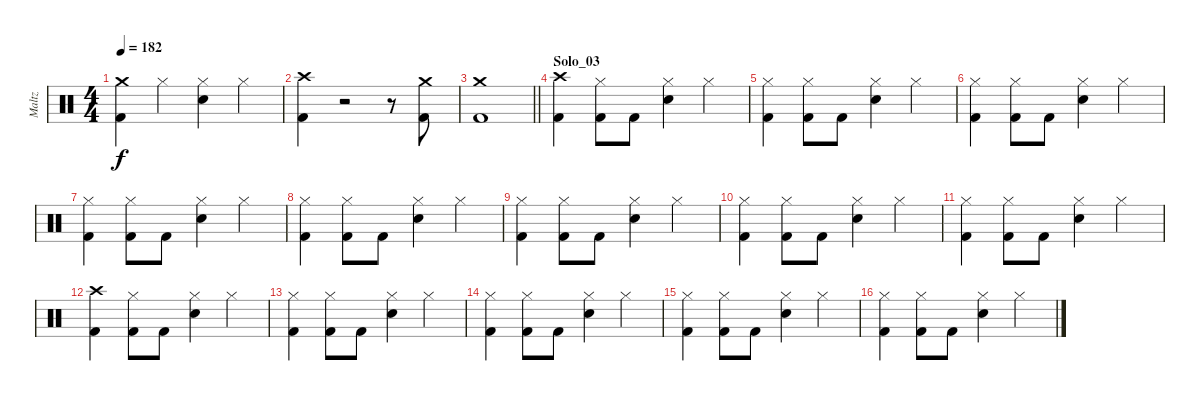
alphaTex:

\track ("Maltz" "Maltz") {instrument percussion}
\staff {score}
\articulation defaults
\ts (4 4)
\tempo 182
\clef neutral
\ks c
("Crash medium (hit)" "Kick (hit) 2").4{dy f} "Hi-Hat (closed)".4 ("Hi-Hat (closed)" "Electric Snare (hit)").4 "Hi-Hat (closed)".4 |
("Crash high (hit)" "Kick (hit) 2").4 r.2 r.8 ("Crash medium (hit)" "Kick (hit) 2").8 |
\barLineRight lightlight
("Crash medium (hit)" "Kick (hit) 2").1 |
\section ("" "Solo_03")
("Crash high (hit)" "Kick (hit) 2").4 ("Hi-Hat (closed)" "Kick (hit) 2").8 "Kick (hit) 2".8 ("Hi-Hat (closed)" "Electric Snare (hit)").4 "Hi-Hat (closed)".4 |
("Hi-Hat (closed)" "Kick (hit) 2").4 ("Hi-Hat (closed)" "Kick (hit) 2").8 "Kick (hit) 2".8 ("Hi-Hat (closed)" "Electric Snare (hit)").4 "Hi-Hat (closed)".4 |
("Hi-Hat (closed)" "Kick (hit) 2").4 ("Hi-Hat (closed)" "Kick (hit) 2").8 "Kick (hit) 2".8 ("Hi-Hat (closed)" "Electric Snare (hit)").4 "Hi-Hat (closed)".4 |
("Hi-Hat (closed)" "Kick (hit) 2").4 ("Hi-Hat (closed)" "Kick (hit) 2").8 "Kick (hit) 2".8 ("Hi-Hat (closed)" "Electric Snare (hit)").4 "Hi-Hat (closed)".4 |
("Hi-Hat (closed)" "Kick (hit) 2").4 ("Hi-Hat (closed)" "Kick (hit) 2").8 "Kick (hit) 2".8 ("Hi-Hat (closed)" "Electric Snare (hit)").4 "Hi-Hat (closed)".4 |
("Hi-Hat (closed)" "Kick (hit) 2").4 ("Hi-Hat (closed)" "Kick (hit) 2").8 "Kick (hit) 2".8 ("Hi-Hat (closed)" "Electric Snare (hit)").4 "Hi-Hat (closed)".4 |
("Hi-Hat (closed)" "Kick (hit) 2").4 ("Hi-Hat (closed)" "Kick (hit) 2").8 "Kick (hit) 2".8 ("Hi-Hat (closed)" "Electric Snare (hit)").4 "Hi-Hat (closed)".4 |
("Hi-Hat (closed)" "Kick (hit) 2").4 ("Hi-Hat (closed)" "Kick (hit) 2").8 "Kick (hit) 2".8 ("Hi-Hat (closed)" "Electric Snare (hit)").4 "Hi-Hat (closed)".4 |
("Crash high (hit)" "Kick (hit) 2").4 ("Hi-Hat (closed)" "Kick (hit) 2").8 "Kick (hit) 2".8 ("Hi-Hat (closed)" "Electric Snare (hit)").4 "Hi-Hat (closed)".4 |
("Hi-Hat (closed)" "Kick (hit) 2").4 ("Hi-Hat (closed)" "Kick (hit) 2").8 "Kick (hit) 2".8 ("Hi-Hat (closed)" "Electric Snare (hit)").4 "Hi-Hat (closed)".4 |
("Hi-Hat (closed)" "Kick (hit) 2").4 ("Hi-Hat (closed)" "Kick (hit) 2").8 "Kick (hit) 2".8 ("Hi-Hat (closed)" "Electric Snare (hit)").4 "Hi-Hat (closed)".4 |
("Hi-Hat (closed)" "Kick (hit) 2").4 ("Hi-Hat (closed)" "Kick (hit) 2").8 "Kick (hit) 2".8 ("Hi-Hat (closed)" "Electric Snare (hit)").4 "Hi-Hat (closed)".4 |
("Hi-Hat (closed)" "Kick (hit) 2").4 ("Hi-Hat (closed)" "Kick (hit) 2").8 "Kick (hit) 2".8 ("Hi-Hat (closed)" "Electric Snare (hit)").4 "Hi-Hat (closed)".4
